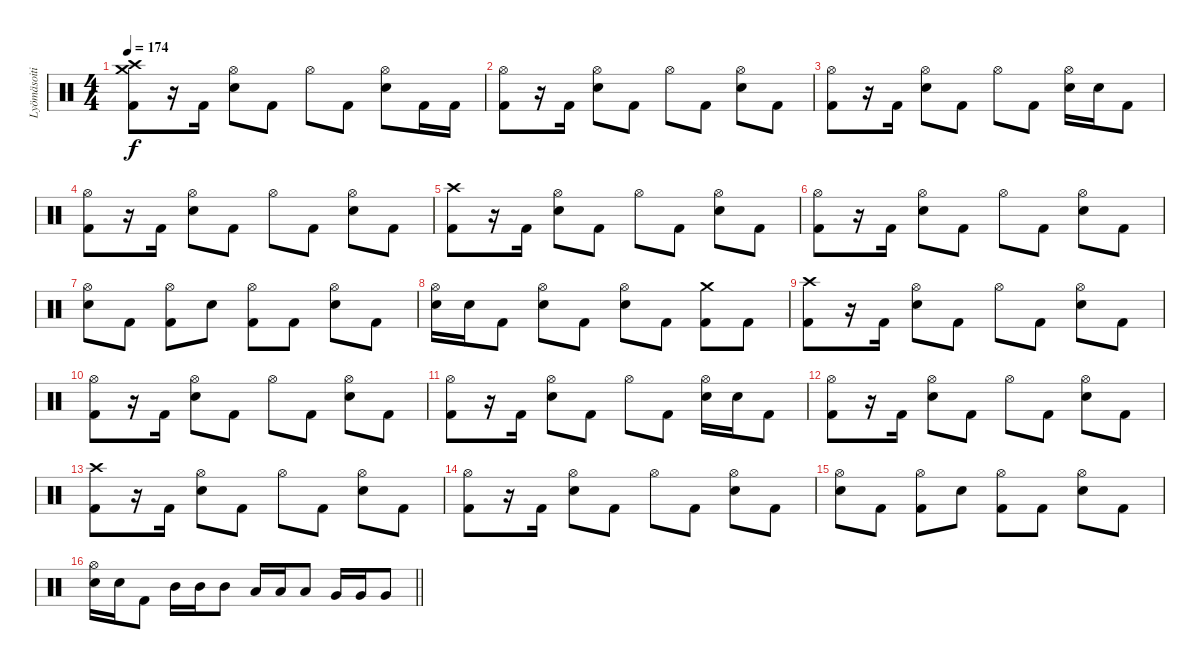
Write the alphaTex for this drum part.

\track ("Lyömäsoitin" "Lyömäsoiti") {instrument percussion}
\staff {score}
\articulation defaults
\ts (4 4)
\section ("" "")
\tempo 174
\clef neutral
\ks c
("Crash medium (hit)" "Crash high (hit)" "Kick (hit) 2").8{dy f} r.16 "Kick (hit) 2".16 ("Hi-Hat (open)" "Electric Snare (hit)").8 "Kick (hit) 2".8 "Hi-Hat (open)".8 "Kick (hit) 2".8 ("Hi-Hat (open)" "Electric Snare (hit)").8 "Kick (hit) 2".16 "Kick (hit) 2".16 |
("Hi-Hat (open)" "Kick (hit) 2").8 r.16 "Kick (hit) 2".16 ("Hi-Hat (open)" "Electric Snare (hit)").8 "Kick (hit) 2".8 "Hi-Hat (open)".8 "Kick (hit) 2".8 ("Hi-Hat (open)" "Electric Snare (hit)").8 "Kick (hit) 2".8 |
("Hi-Hat (open)" "Kick (hit) 2").8 r.16 "Kick (hit) 2".16 ("Hi-Hat (open)" "Electric Snare (hit)").8 "Kick (hit) 2".8 "Hi-Hat (open)".8 "Kick (hit) 2".8 ("Hi-Hat (open)" "Electric Snare (hit)").16 "Electric Snare (hit)".16 "Kick (hit) 2".8 |
("Hi-Hat (open)" "Kick (hit) 2").8 r.16 "Kick (hit) 2".16 ("Hi-Hat (open)" "Electric Snare (hit)").8 "Kick (hit) 2".8 "Hi-Hat (open)".8 "Kick (hit) 2".8 ("Hi-Hat (open)" "Electric Snare (hit)").8 "Kick (hit) 2".8 |
("Crash high (hit)" "Kick (hit) 2").8 r.16 "Kick (hit) 2".16 ("Hi-Hat (open)" "Electric Snare (hit)").8 "Kick (hit) 2".8 "Hi-Hat (open)".8 "Kick (hit) 2".8 ("Hi-Hat (open)" "Electric Snare (hit)").8 "Kick (hit) 2".8 |
("Hi-Hat (open)" "Kick (hit) 2").8 r.16 "Kick (hit) 2".16 ("Hi-Hat (open)" "Electric Snare (hit)").8 "Kick (hit) 2".8 "Hi-Hat (open)".8 "Kick (hit) 2".8 ("Hi-Hat (open)" "Electric Snare (hit)").8 "Kick (hit) 2".8 |
("Hi-Hat (open)" "Electric Snare (hit)").8 "Kick (hit) 2".8 ("Hi-Hat (open)" "Kick (hit) 2").8 "Electric Snare (hit)".8 ("Hi-Hat (open)" "Kick (hit) 2").8 "Kick (hit) 2".8 ("Hi-Hat (open)" "Electric Snare (hit)").8 "Kick (hit) 2".8 |
("Hi-Hat (open)" "Electric Snare (hit)").16 "Electric Snare (hit)".16 "Kick (hit) 2".8 ("Hi-Hat (open)" "Electric Snare (hit)").8 "Kick (hit) 2".8 ("Hi-Hat (open)" "Electric Snare (hit)").8 "Kick (hit) 2".8 ("Crash medium (hit)" "Kick (hit) 2").8 "Kick (hit) 2".8 |
("Crash high (hit)" "Kick (hit) 2").8 r.16 "Kick (hit) 2".16 ("Hi-Hat (open)" "Electric Snare (hit)").8 "Kick (hit) 2".8 "Hi-Hat (open)".8 "Kick (hit) 2".8 ("Hi-Hat (open)" "Electric Snare (hit)").8 "Kick (hit) 2".8 |
("Hi-Hat (open)" "Kick (hit) 2").8 r.16 "Kick (hit) 2".16 ("Hi-Hat (open)" "Electric Snare (hit)").8 "Kick (hit) 2".8 "Hi-Hat (open)".8 "Kick (hit) 2".8 ("Hi-Hat (open)" "Electric Snare (hit)").8 "Kick (hit) 2".8 |
("Hi-Hat (open)" "Kick (hit) 2").8 r.16 "Kick (hit) 2".16 ("Hi-Hat (open)" "Electric Snare (hit)").8 "Kick (hit) 2".8 "Hi-Hat (open)".8 "Kick (hit) 2".8 ("Hi-Hat (open)" "Electric Snare (hit)").16 "Electric Snare (hit)".16 "Kick (hit) 2".8 |
("Hi-Hat (open)" "Kick (hit) 2").8 r.16 "Kick (hit) 2".16 ("Hi-Hat (open)" "Electric Snare (hit)").8 "Kick (hit) 2".8 "Hi-Hat (open)".8 "Kick (hit) 2".8 ("Hi-Hat (open)" "Electric Snare (hit)").8 "Kick (hit) 2".8 |
("Crash high (hit)" "Kick (hit) 2").8 r.16 "Kick (hit) 2".16 ("Hi-Hat (open)" "Electric Snare (hit)").8 "Kick (hit) 2".8 "Hi-Hat (open)".8 "Kick (hit) 2".8 ("Hi-Hat (open)" "Electric Snare (hit)").8 "Kick (hit) 2".8 |
("Hi-Hat (open)" "Kick (hit) 2").8 r.16 "Kick (hit) 2".16 ("Hi-Hat (open)" "Electric Snare (hit)").8 "Kick (hit) 2".8 "Hi-Hat (open)".8 "Kick (hit) 2".8 ("Hi-Hat (open)" "Electric Snare (hit)").8 "Kick (hit) 2".8 |
("Hi-Hat (open)" "Electric Snare (hit)").8 "Kick (hit) 2".8 ("Hi-Hat (open)" "Kick (hit) 2").8 "Electric Snare (hit)".8 ("Hi-Hat (open)" "Kick (hit) 2").8 "Kick (hit) 2".8 ("Hi-Hat (open)" "Electric Snare (hit)").8 "Kick (hit) 2".8 |
\barLineRight lightlight
("Hi-Hat (open)" "Electric Snare (hit)").16 "Electric Snare (hit)".16 "Kick (hit) 2".8 "Mid Tom (hit)".16 "Mid Tom (hit)".16 "Mid Tom (hit)".8 "Low Tom (hit)".16 "Low Tom (hit)".16 "Low Tom (hit)".8 "Very Low Tom (hit)".16 "Very Low Tom (hit)".16 "Very Low Tom (hit)".8
